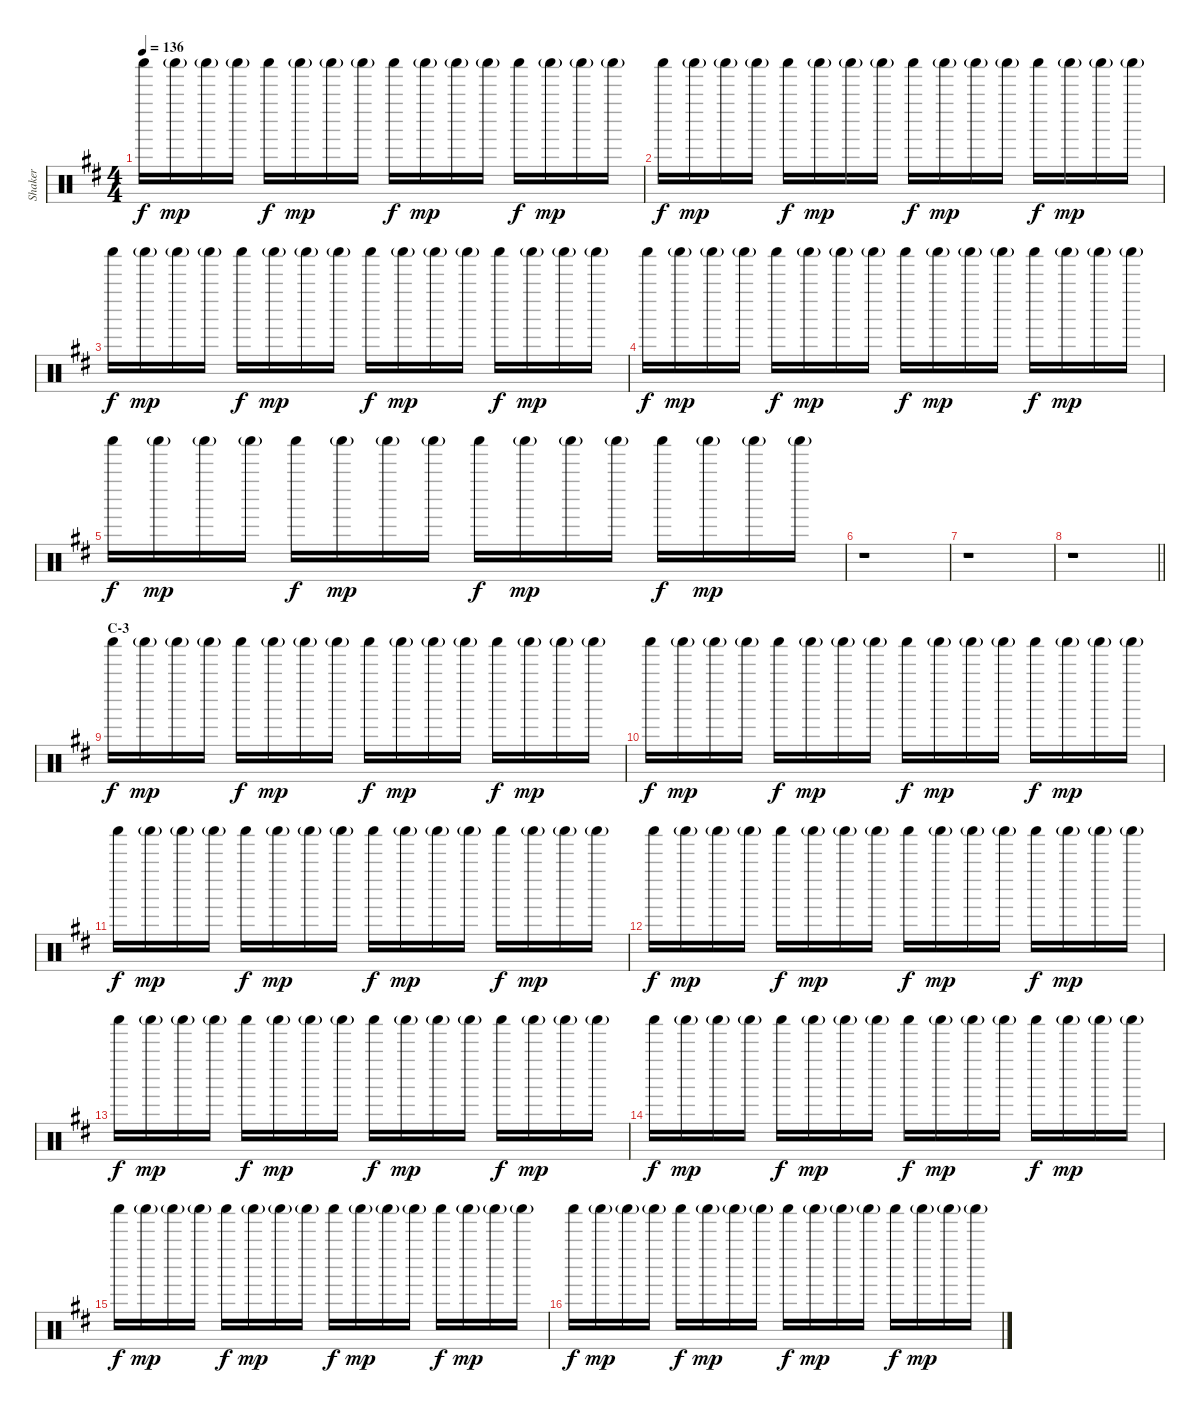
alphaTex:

\track ("Shaker" "Shaker") {instrument percussion}
\staff {score}
\articulation defaults
\ts (4 4)
\tempo 136
\clef neutral
\ks d "Shaker (hit)".16{dy f} "Shaker (hit)"{g}.16{dy mp} "Shaker (hit)"{g}.16 "Shaker (hit)"{g}.16 "Shaker (hit)".16{dy f} "Shaker (hit)"{g}.16{dy mp} "Shaker (hit)"{g}.16 "Shaker (hit)"{g}.16 "Shaker (hit)".16{dy f} "Shaker (hit)"{g}.16{dy mp} "Shaker (hit)"{g}.16 "Shaker (hit)"{g}.16 "Shaker (hit)".16{dy f} "Shaker (hit)"{g}.16{dy mp} "Shaker (hit)"{g}.16 "Shaker (hit)"{g}.16
|
"Shaker (hit)".16{dy f} "Shaker (hit)"{g}.16{dy mp} "Shaker (hit)"{g}.16 "Shaker (hit)"{g}.16 "Shaker (hit)".16{dy f} "Shaker (hit)"{g}.16{dy mp} "Shaker (hit)"{g}.16 "Shaker (hit)"{g}.16 "Shaker (hit)".16{dy f} "Shaker (hit)"{g}.16{dy mp} "Shaker (hit)"{g}.16 "Shaker (hit)"{g}.16 "Shaker (hit)".16{dy f} "Shaker (hit)"{g}.16{dy mp} "Shaker (hit)"{g}.16 "Shaker (hit)"{g}.16 |
"Shaker (hit)".16{dy f} "Shaker (hit)"{g}.16{dy mp} "Shaker (hit)"{g}.16 "Shaker (hit)"{g}.16 "Shaker (hit)".16{dy f} "Shaker (hit)"{g}.16{dy mp} "Shaker (hit)"{g}.16 "Shaker (hit)"{g}.16 "Shaker (hit)".16{dy f} "Shaker (hit)"{g}.16{dy mp} "Shaker (hit)"{g}.16 "Shaker (hit)"{g}.16 "Shaker (hit)".16{dy f} "Shaker (hit)"{g}.16{dy mp} "Shaker (hit)"{g}.16 "Shaker (hit)"{g}.16 |
"Shaker (hit)".16{dy f} "Shaker (hit)"{g}.16{dy mp} "Shaker (hit)"{g}.16 "Shaker (hit)"{g}.16 "Shaker (hit)".16{dy f} "Shaker (hit)"{g}.16{dy mp} "Shaker (hit)"{g}.16 "Shaker (hit)"{g}.16 "Shaker (hit)".16{dy f} "Shaker (hit)"{g}.16{dy mp} "Shaker (hit)"{g}.16 "Shaker (hit)"{g}.16 "Shaker (hit)".16{dy f} "Shaker (hit)"{g}.16{dy mp} "Shaker (hit)"{g}.16 "Shaker (hit)"{g}.16 |
"Shaker (hit)".16{dy f} "Shaker (hit)"{g}.16{dy mp} "Shaker (hit)"{g}.16 "Shaker (hit)"{g}.16 "Shaker (hit)".16{dy f} "Shaker (hit)"{g}.16{dy mp} "Shaker (hit)"{g}.16 "Shaker (hit)"{g}.16 "Shaker (hit)".16{dy f} "Shaker (hit)"{g}.16{dy mp} "Shaker (hit)"{g}.16 "Shaker (hit)"{g}.16 "Shaker (hit)".16{dy f} "Shaker (hit)"{g}.16{dy mp} "Shaker (hit)"{g}.16 "Shaker (hit)"{g}.16 |
r.1 |
r.1 |
\barLineRight lightlight
r.1 |
\section ("" "C-3")
"Shaker (hit)".16{dy f} "Shaker (hit)"{g}.16{dy mp} "Shaker (hit)"{g}.16 "Shaker (hit)"{g}.16 "Shaker (hit)".16{dy f} "Shaker (hit)"{g}.16{dy mp} "Shaker (hit)"{g}.16 "Shaker (hit)"{g}.16 "Shaker (hit)".16{dy f} "Shaker (hit)"{g}.16{dy mp} "Shaker (hit)"{g}.16 "Shaker (hit)"{g}.16 "Shaker (hit)".16{dy f} "Shaker (hit)"{g}.16{dy mp} "Shaker (hit)"{g}.16 "Shaker (hit)"{g}.16 |
"Shaker (hit)".16{dy f} "Shaker (hit)"{g}.16{dy mp} "Shaker (hit)"{g}.16 "Shaker (hit)"{g}.16 "Shaker (hit)".16{dy f} "Shaker (hit)"{g}.16{dy mp} "Shaker (hit)"{g}.16 "Shaker (hit)"{g}.16 "Shaker (hit)".16{dy f} "Shaker (hit)"{g}.16{dy mp} "Shaker (hit)"{g}.16 "Shaker (hit)"{g}.16 "Shaker (hit)".16{dy f} "Shaker (hit)"{g}.16{dy mp} "Shaker (hit)"{g}.16 "Shaker (hit)"{g}.16 |
"Shaker (hit)".16{dy f} "Shaker (hit)"{g}.16{dy mp} "Shaker (hit)"{g}.16 "Shaker (hit)"{g}.16 "Shaker (hit)".16{dy f} "Shaker (hit)"{g}.16{dy mp} "Shaker (hit)"{g}.16 "Shaker (hit)"{g}.16 "Shaker (hit)".16{dy f} "Shaker (hit)"{g}.16{dy mp} "Shaker (hit)"{g}.16 "Shaker (hit)"{g}.16 "Shaker (hit)".16{dy f} "Shaker (hit)"{g}.16{dy mp} "Shaker (hit)"{g}.16 "Shaker (hit)"{g}.16 |
"Shaker (hit)".16{dy f} "Shaker (hit)"{g}.16{dy mp} "Shaker (hit)"{g}.16 "Shaker (hit)"{g}.16 "Shaker (hit)".16{dy f} "Shaker (hit)"{g}.16{dy mp} "Shaker (hit)"{g}.16 "Shaker (hit)"{g}.16 "Shaker (hit)".16{dy f} "Shaker (hit)"{g}.16{dy mp} "Shaker (hit)"{g}.16 "Shaker (hit)"{g}.16 "Shaker (hit)".16{dy f} "Shaker (hit)"{g}.16{dy mp} "Shaker (hit)"{g}.16 "Shaker (hit)"{g}.16 |
"Shaker (hit)".16{dy f} "Shaker (hit)"{g}.16{dy mp} "Shaker (hit)"{g}.16 "Shaker (hit)"{g}.16 "Shaker (hit)".16{dy f} "Shaker (hit)"{g}.16{dy mp} "Shaker (hit)"{g}.16 "Shaker (hit)"{g}.16 "Shaker (hit)".16{dy f} "Shaker (hit)"{g}.16{dy mp} "Shaker (hit)"{g}.16 "Shaker (hit)"{g}.16 "Shaker (hit)".16{dy f} "Shaker (hit)"{g}.16{dy mp} "Shaker (hit)"{g}.16 "Shaker (hit)"{g}.16 |
"Shaker (hit)".16{dy f} "Shaker (hit)"{g}.16{dy mp} "Shaker (hit)"{g}.16 "Shaker (hit)"{g}.16 "Shaker (hit)".16{dy f} "Shaker (hit)"{g}.16{dy mp} "Shaker (hit)"{g}.16 "Shaker (hit)"{g}.16 "Shaker (hit)".16{dy f} "Shaker (hit)"{g}.16{dy mp} "Shaker (hit)"{g}.16 "Shaker (hit)"{g}.16 "Shaker (hit)".16{dy f} "Shaker (hit)"{g}.16{dy mp} "Shaker (hit)"{g}.16 "Shaker (hit)"{g}.16 |
"Shaker (hit)".16{dy f} "Shaker (hit)"{g}.16{dy mp} "Shaker (hit)"{g}.16 "Shaker (hit)"{g}.16 "Shaker (hit)".16{dy f} "Shaker (hit)"{g}.16{dy mp} "Shaker (hit)"{g}.16 "Shaker (hit)"{g}.16 "Shaker (hit)".16{dy f} "Shaker (hit)"{g}.16{dy mp} "Shaker (hit)"{g}.16 "Shaker (hit)"{g}.16 "Shaker (hit)".16{dy f} "Shaker (hit)"{g}.16{dy mp} "Shaker (hit)"{g}.16 "Shaker (hit)"{g}.16 |
"Shaker (hit)".16{dy f} "Shaker (hit)"{g}.16{dy mp} "Shaker (hit)"{g}.16 "Shaker (hit)"{g}.16 "Shaker (hit)".16{dy f} "Shaker (hit)"{g}.16{dy mp} "Shaker (hit)"{g}.16 "Shaker (hit)"{g}.16 "Shaker (hit)".16{dy f} "Shaker (hit)"{g}.16{dy mp} "Shaker (hit)"{g}.16 "Shaker (hit)"{g}.16 "Shaker (hit)".16{dy f} "Shaker (hit)"{g}.16{dy mp} "Shaker (hit)"{g}.16 "Shaker (hit)"{g}.16
